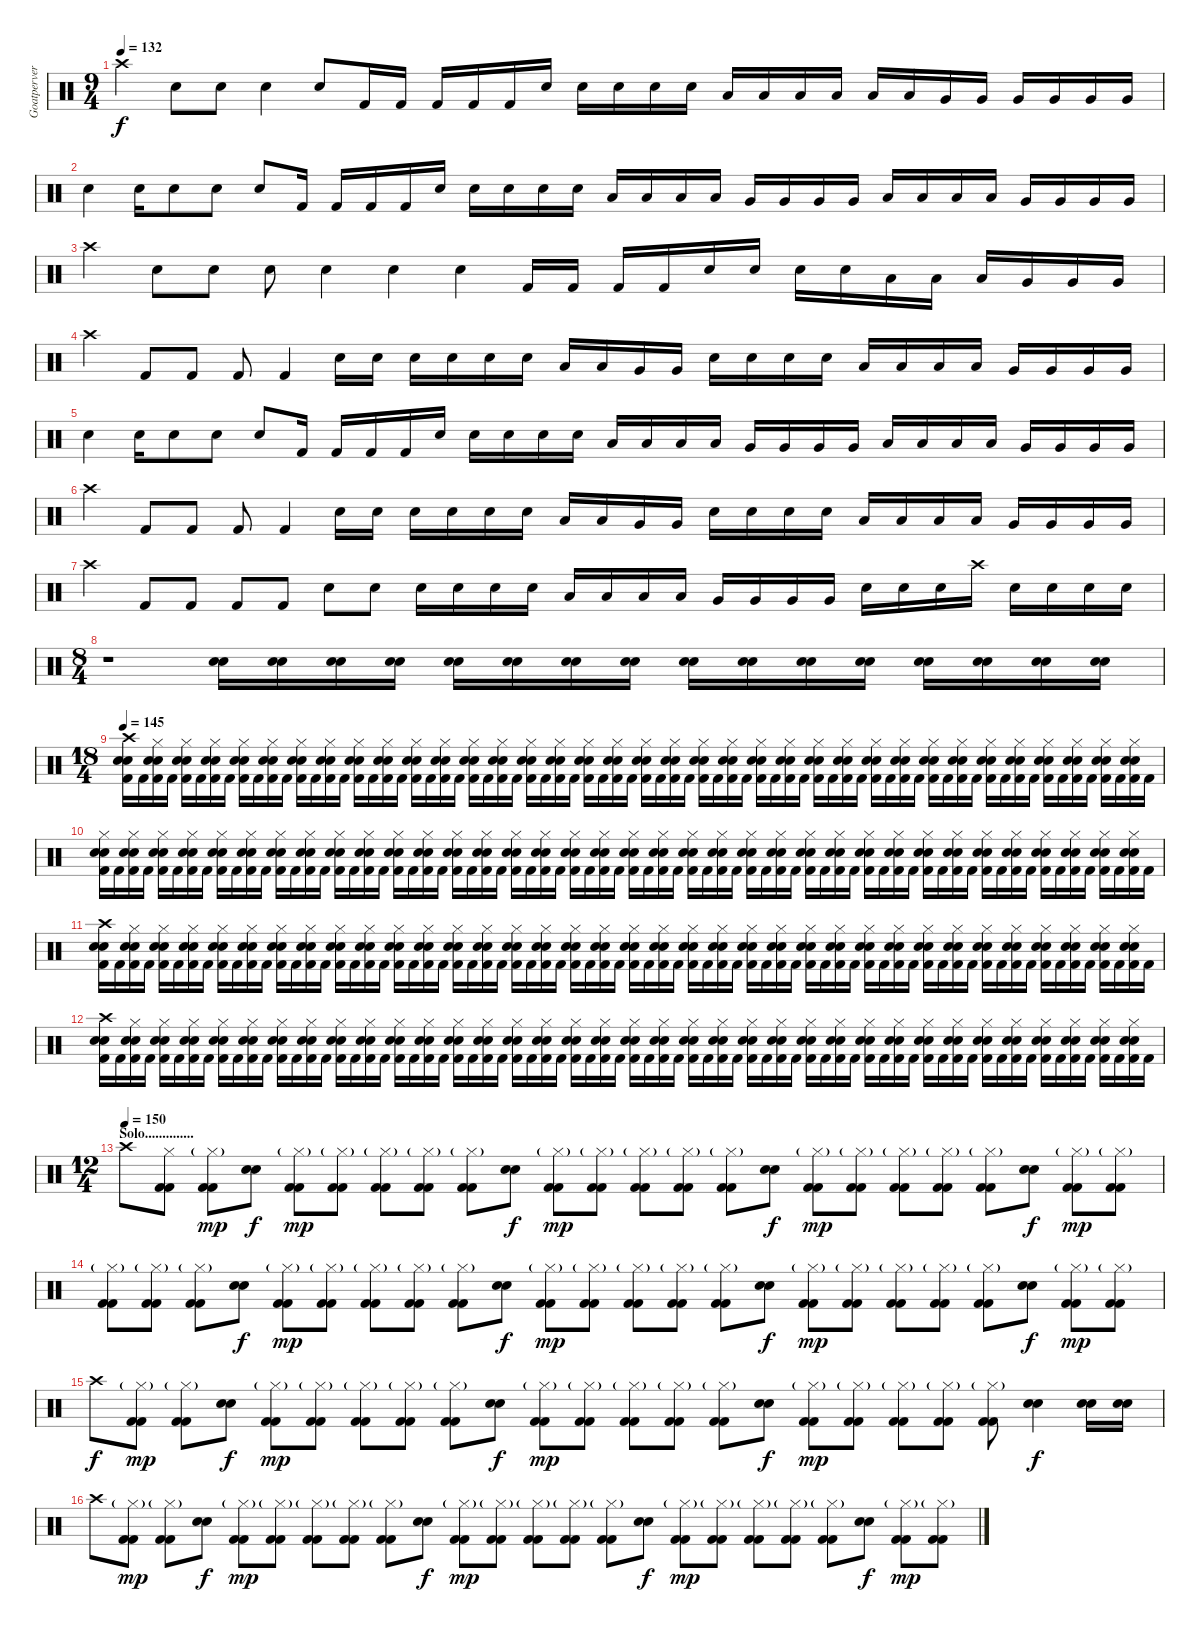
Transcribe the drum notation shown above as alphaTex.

\track ("Goatpervertor " "Goatperver") {instrument percussion}
\staff {score}
\articulation defaults
\ts (9 4)
\tempo 132
\clef neutral
\ks c "Crash high (hit)".4{dy f} "Snare (hit) 2".8 "Snare (hit) 2".8 "Snare (hit) 2".4 "Snare (hit) 2".8 "Kick (hit) 2".16 "Kick (hit) 2".16 "Kick (hit) 2".16 "Kick (hit) 2".16 "Kick (hit) 2".16 "Snare (hit) 2".16 "Snare (hit) 2".16 "Snare (hit) 2".16 "Snare (hit) 2".16 "Snare (hit) 2".16 "Low Floor Tom (hit)".16 "Low Floor Tom (hit)".16 "Low Floor Tom (hit)".16 "Low Floor Tom (hit)".16 "Low Floor Tom (hit)".16 "Low Floor Tom (hit)".16 "Very Low Tom (hit)".16 "Very Low Tom (hit)".16 "Very Low Tom (hit)".16 "Very Low Tom (hit)".16 "Very Low Tom (hit)".16 "Very Low Tom (hit)".16
|
"Snare (hit) 2".4 "Snare (hit) 2".16 "Snare (hit) 2".8 "Snare (hit) 2".8 "Snare (hit) 2".8 "Kick (hit) 2".16 "Kick (hit) 2".16 "Kick (hit) 2".16 "Kick (hit) 2".16 "Snare (hit) 2".16 "Snare (hit) 2".16 "Snare (hit) 2".16 "Snare (hit) 2".16 "Snare (hit) 2".16 "Low Floor Tom (hit)".16 "Low Floor Tom (hit)".16 "Low Floor Tom (hit)".16 "Low Floor Tom (hit)".16 "Very Low Tom (hit)".16 "Very Low Tom (hit)".16 "Very Low Tom (hit)".16 "Very Low Tom (hit)".16 "Low Floor Tom (hit)".16 "Low Floor Tom (hit)".16 "Low Floor Tom (hit)".16 "Low Floor Tom (hit)".16 "Very Low Tom (hit)".16 "Very Low Tom (hit)".16 "Very Low Tom (hit)".16 "Very Low Tom (hit)".16 |
"Crash high (hit)".4 "Snare (hit) 2".8 "Snare (hit) 2".8 "Snare (hit) 2".8 "Snare (hit) 2".4 "Snare (hit) 2".4 "Snare (hit) 2".4 "Kick (hit) 2".16 "Kick (hit) 2".16 "Kick (hit) 2".16 "Kick (hit) 2".16 "Snare (hit) 2".16 "Snare (hit) 2".16 "Snare (hit) 2".16 "Snare (hit) 2".16 "Low Floor Tom (hit)".16 "Low Floor Tom (hit)".16 "Low Floor Tom (hit)".16 "Very Low Tom (hit)".16 "Very Low Tom (hit)".16 "Very Low Tom (hit)".16 |
"Crash high (hit)".4 "Kick (hit) 2".8 "Kick (hit) 2".8 "Kick (hit) 2".8 "Kick (hit) 2".4 "Snare (hit) 2".16 "Snare (hit) 2".16 "Snare (hit) 2".16 "Snare (hit) 2".16 "Snare (hit) 2".16 "Snare (hit) 2".16 "Low Floor Tom (hit)".16 "Low Floor Tom (hit)".16 "Very Low Tom (hit)".16 "Very Low Tom (hit)".16 "Snare (hit) 2".16 "Snare (hit) 2".16 "Snare (hit) 2".16 "Snare (hit) 2".16 "Low Floor Tom (hit)".16 "Low Floor Tom (hit)".16 "Low Floor Tom (hit)".16 "Low Floor Tom (hit)".16 "Very Low Tom (hit)".16 "Very Low Tom (hit)".16 "Very Low Tom (hit)".16 "Very Low Tom (hit)".16 |
"Snare (hit) 2".4 "Snare (hit) 2".16 "Snare (hit) 2".8 "Snare (hit) 2".8 "Snare (hit) 2".8 "Kick (hit) 2".16 "Kick (hit) 2".16 "Kick (hit) 2".16 "Kick (hit) 2".16 "Snare (hit) 2".16 "Snare (hit) 2".16 "Snare (hit) 2".16 "Snare (hit) 2".16 "Snare (hit) 2".16 "Low Floor Tom (hit)".16 "Low Floor Tom (hit)".16 "Low Floor Tom (hit)".16 "Low Floor Tom (hit)".16 "Very Low Tom (hit)".16 "Very Low Tom (hit)".16 "Very Low Tom (hit)".16 "Very Low Tom (hit)".16 "Low Floor Tom (hit)".16 "Low Floor Tom (hit)".16 "Low Floor Tom (hit)".16 "Low Floor Tom (hit)".16 "Very Low Tom (hit)".16 "Very Low Tom (hit)".16 "Very Low Tom (hit)".16 "Very Low Tom (hit)".16 |
"Crash high (hit)".4 "Kick (hit) 2".8 "Kick (hit) 2".8 "Kick (hit) 2".8 "Kick (hit) 2".4 "Snare (hit) 2".16 "Snare (hit) 2".16 "Snare (hit) 2".16 "Snare (hit) 2".16 "Snare (hit) 2".16 "Snare (hit) 2".16 "Low Floor Tom (hit)".16 "Low Floor Tom (hit)".16 "Very Low Tom (hit)".16 "Very Low Tom (hit)".16 "Snare (hit) 2".16 "Snare (hit) 2".16 "Snare (hit) 2".16 "Snare (hit) 2".16 "Low Floor Tom (hit)".16 "Low Floor Tom (hit)".16 "Low Floor Tom (hit)".16 "Low Floor Tom (hit)".16 "Very Low Tom (hit)".16 "Very Low Tom (hit)".16 "Very Low Tom (hit)".16 "Very Low Tom (hit)".16 |
"Crash high (hit)".4 "Kick (hit) 2".8 "Kick (hit) 2".8 "Kick (hit) 2".8 "Kick (hit) 2".8 "Snare (hit) 2".8 "Snare (hit) 2".8 "Snare (hit) 2".16 "Snare (hit) 2".16 "Snare (hit) 2".16 "Snare (hit) 2".16 "Low Floor Tom (hit)".16 "Low Floor Tom (hit)".16 "Low Floor Tom (hit)".16 "Low Floor Tom (hit)".16 "Very Low Tom (hit)".16 "Very Low Tom (hit)".16 "Very Low Tom (hit)".16 "Very Low Tom (hit)".16 "Snare (hit) 2".16 "Snare (hit) 2".16 "Snare (hit) 2".16 "Crash high (hit)".16 "Snare (hit) 2".16 "Snare (hit) 2".16 "Snare (hit) 2".16 "Snare (hit) 2".16 |
\ts (8 4)
r.1 ("Snare (hit) 2" "Snare (hit) 2").16 ("Snare (hit) 2" "Snare (hit) 2").16 ("Snare (hit) 2" "Snare (hit) 2").16 ("Snare (hit) 2" "Snare (hit) 2").16 ("Snare (hit) 2" "Snare (hit) 2").16 ("Snare (hit) 2" "Snare (hit) 2").16 ("Snare (hit) 2" "Snare (hit) 2").16 ("Snare (hit) 2" "Snare (hit) 2").16 ("Snare (hit) 2" "Snare (hit) 2").16 ("Snare (hit) 2" "Snare (hit) 2").16 ("Snare (hit) 2" "Snare (hit) 2").16 ("Snare (hit) 2" "Snare (hit) 2").16 ("Snare (hit) 2" "Snare (hit) 2").16 ("Snare (hit) 2" "Snare (hit) 2").16 ("Snare (hit) 2" "Snare (hit) 2").16 ("Snare (hit) 2" "Snare (hit) 2").16 |
\ts (18 4)
\tempo 145
("Crash high (hit)" "Snare (hit) 2" "Snare (hit) 2" "Kick (hit) 2").16 "Kick (hit) 2".16 ("Hi-Hat (closed)" "Snare (hit) 2" "Snare (hit) 2" "Kick (hit) 2").16 "Kick (hit) 2".16 ("Hi-Hat (closed)" "Snare (hit) 2" "Snare (hit) 2" "Kick (hit) 2").16 "Kick (hit) 2".16 ("Hi-Hat (closed)" "Snare (hit) 2" "Snare (hit) 2" "Kick (hit) 2").16 "Kick (hit) 2".16 ("Hi-Hat (closed)" "Snare (hit) 2" "Snare (hit) 2" "Kick (hit) 2").16 "Kick (hit) 2".16 ("Hi-Hat (closed)" "Snare (hit) 2" "Snare (hit) 2" "Kick (hit) 2").16 "Kick (hit) 2".16 ("Hi-Hat (closed)" "Snare (hit) 2" "Snare (hit) 2" "Kick (hit) 2").16 "Kick (hit) 2".16 ("Hi-Hat (closed)" "Snare (hit) 2" "Snare (hit) 2" "Kick (hit) 2").16 "Kick (hit) 2".16 ("Hi-Hat (closed)" "Snare (hit) 2" "Snare (hit) 2" "Kick (hit) 2").16 "Kick (hit) 2".16 ("Hi-Hat (closed)" "Snare (hit) 2" "Snare (hit) 2" "Kick (hit) 2").16 "Kick (hit) 2".16 ("Hi-Hat (closed)" "Snare (hit) 2" "Snare (hit) 2" "Kick (hit) 2").16 "Kick (hit) 2".16 ("Hi-Hat (closed)" "Snare (hit) 2" "Snare (hit) 2" "Kick (hit) 2").16 "Kick (hit) 2".16 ("Hi-Hat (closed)" "Snare (hit) 2" "Snare (hit) 2" "Kick (hit) 2").16 "Kick (hit) 2".16 ("Hi-Hat (closed)" "Snare (hit) 2" "Snare (hit) 2" "Kick (hit) 2").16 "Kick (hit) 2".16 ("Hi-Hat (closed)" "Snare (hit) 2" "Snare (hit) 2" "Kick (hit) 2").16 "Kick (hit) 2".16 ("Hi-Hat (closed)" "Snare (hit) 2" "Snare (hit) 2" "Kick (hit) 2").16 "Kick (hit) 2".16 ("Hi-Hat (closed)" "Snare (hit) 2" "Snare (hit) 2" "Kick (hit) 2").16 "Kick (hit) 2".16 ("Hi-Hat (closed)" "Snare (hit) 2" "Snare (hit) 2" "Kick (hit) 2").16 "Kick (hit) 2".16 ("Hi-Hat (closed)" "Snare (hit) 2" "Snare (hit) 2" "Kick (hit) 2").16 "Kick (hit) 2".16 ("Hi-Hat (closed)" "Snare (hit) 2" "Snare (hit) 2" "Kick (hit) 2").16 "Kick (hit) 2".16 ("Hi-Hat (closed)" "Snare (hit) 2" "Snare (hit) 2" "Kick (hit) 2").16 "Kick (hit) 2".16 ("Hi-Hat (closed)" "Snare (hit) 2" "Snare (hit) 2" "Kick (hit) 2").16 "Kick (hit) 2".16 ("Hi-Hat (closed)" "Snare (hit) 2" "Snare (hit) 2" "Kick (hit) 2").16 "Kick (hit) 2".16 ("Hi-Hat (closed)" "Snare (hit) 2" "Snare (hit) 2" "Kick (hit) 2").16 "Kick (hit) 2".16 ("Hi-Hat (closed)" "Snare (hit) 2" "Snare (hit) 2" "Kick (hit) 2").16 "Kick (hit) 2".16 ("Hi-Hat (closed)" "Snare (hit) 2" "Snare (hit) 2" "Kick (hit) 2").16 "Kick (hit) 2".16 ("Hi-Hat (closed)" "Snare (hit) 2" "Snare (hit) 2" "Kick (hit) 2").16 "Kick (hit) 2".16 ("Hi-Hat (closed)" "Snare (hit) 2" "Snare (hit) 2" "Kick (hit) 2").16 "Kick (hit) 2".16 ("Hi-Hat (closed)" "Snare (hit) 2" "Snare (hit) 2" "Kick (hit) 2").16 "Kick (hit) 2".16 ("Hi-Hat (closed)" "Snare (hit) 2" "Snare (hit) 2" "Kick (hit) 2").16 "Kick (hit) 2".16 ("Hi-Hat (closed)" "Snare (hit) 2" "Snare (hit) 2" "Kick (hit) 2").16 "Kick (hit) 2".16 ("Hi-Hat (closed)" "Snare (hit) 2" "Snare (hit) 2" "Kick (hit) 2").16 "Kick (hit) 2".16 ("Hi-Hat (closed)" "Snare (hit) 2" "Snare (hit) 2" "Kick (hit) 2").16 "Kick (hit) 2".16 ("Hi-Hat (closed)" "Snare (hit) 2" "Snare (hit) 2" "Kick (hit) 2").16 "Kick (hit) 2".16 ("Hi-Hat (closed)" "Snare (hit) 2" "Snare (hit) 2" "Kick (hit) 2").16 "Kick (hit) 2".16 ("Hi-Hat (closed)" "Snare (hit) 2" "Snare (hit) 2" "Kick (hit) 2").16 "Kick (hit) 2".16 |
("Hi-Hat (closed)" "Snare (hit) 2" "Snare (hit) 2" "Kick (hit) 2").16 "Kick (hit) 2".16 ("Hi-Hat (closed)" "Snare (hit) 2" "Snare (hit) 2" "Kick (hit) 2").16 "Kick (hit) 2".16 ("Hi-Hat (closed)" "Snare (hit) 2" "Snare (hit) 2" "Kick (hit) 2").16 "Kick (hit) 2".16 ("Hi-Hat (closed)" "Snare (hit) 2" "Snare (hit) 2" "Kick (hit) 2").16 "Kick (hit) 2".16 ("Hi-Hat (closed)" "Snare (hit) 2" "Snare (hit) 2" "Kick (hit) 2").16 "Kick (hit) 2".16 ("Hi-Hat (closed)" "Snare (hit) 2" "Snare (hit) 2" "Kick (hit) 2").16 "Kick (hit) 2".16 ("Hi-Hat (closed)" "Snare (hit) 2" "Snare (hit) 2" "Kick (hit) 2").16 "Kick (hit) 2".16 ("Hi-Hat (closed)" "Snare (hit) 2" "Snare (hit) 2" "Kick (hit) 2").16 "Kick (hit) 2".16 ("Hi-Hat (closed)" "Snare (hit) 2" "Snare (hit) 2" "Kick (hit) 2").16 "Kick (hit) 2".16 ("Hi-Hat (closed)" "Snare (hit) 2" "Snare (hit) 2" "Kick (hit) 2").16 "Kick (hit) 2".16 ("Hi-Hat (closed)" "Snare (hit) 2" "Snare (hit) 2" "Kick (hit) 2").16 "Kick (hit) 2".16 ("Hi-Hat (closed)" "Snare (hit) 2" "Snare (hit) 2" "Kick (hit) 2").16 "Kick (hit) 2".16 ("Hi-Hat (closed)" "Snare (hit) 2" "Snare (hit) 2" "Kick (hit) 2").16 "Kick (hit) 2".16 ("Hi-Hat (closed)" "Snare (hit) 2" "Snare (hit) 2" "Kick (hit) 2").16 "Kick (hit) 2".16 ("Hi-Hat (closed)" "Snare (hit) 2" "Snare (hit) 2" "Kick (hit) 2").16 "Kick (hit) 2".16 ("Hi-Hat (closed)" "Snare (hit) 2" "Snare (hit) 2" "Kick (hit) 2").16 "Kick (hit) 2".16 ("Hi-Hat (closed)" "Snare (hit) 2" "Snare (hit) 2" "Kick (hit) 2").16 "Kick (hit) 2".16 ("Hi-Hat (closed)" "Snare (hit) 2" "Snare (hit) 2" "Kick (hit) 2").16 "Kick (hit) 2".16 ("Hi-Hat (closed)" "Snare (hit) 2" "Snare (hit) 2" "Kick (hit) 2").16 "Kick (hit) 2".16 ("Hi-Hat (closed)" "Snare (hit) 2" "Snare (hit) 2" "Kick (hit) 2").16 "Kick (hit) 2".16 ("Hi-Hat (closed)" "Snare (hit) 2" "Snare (hit) 2" "Kick (hit) 2").16 "Kick (hit) 2".16 ("Hi-Hat (closed)" "Snare (hit) 2" "Snare (hit) 2" "Kick (hit) 2").16 "Kick (hit) 2".16 ("Hi-Hat (closed)" "Snare (hit) 2" "Snare (hit) 2" "Kick (hit) 2").16 "Kick (hit) 2".16 ("Hi-Hat (closed)" "Snare (hit) 2" "Snare (hit) 2" "Kick (hit) 2").16 "Kick (hit) 2".16 ("Hi-Hat (closed)" "Snare (hit) 2" "Snare (hit) 2" "Kick (hit) 2").16 "Kick (hit) 2".16 ("Hi-Hat (closed)" "Snare (hit) 2" "Snare (hit) 2" "Kick (hit) 2").16 "Kick (hit) 2".16 ("Hi-Hat (closed)" "Snare (hit) 2" "Snare (hit) 2" "Kick (hit) 2").16 "Kick (hit) 2".16 ("Hi-Hat (closed)" "Snare (hit) 2" "Snare (hit) 2" "Kick (hit) 2").16 "Kick (hit) 2".16 ("Hi-Hat (closed)" "Snare (hit) 2" "Snare (hit) 2" "Kick (hit) 2").16 "Kick (hit) 2".16 ("Hi-Hat (closed)" "Snare (hit) 2" "Snare (hit) 2" "Kick (hit) 2").16 "Kick (hit) 2".16 ("Hi-Hat (closed)" "Snare (hit) 2" "Snare (hit) 2" "Kick (hit) 2").16 "Kick (hit) 2".16 ("Hi-Hat (closed)" "Snare (hit) 2" "Snare (hit) 2" "Kick (hit) 2").16 "Kick (hit) 2".16 ("Hi-Hat (closed)" "Snare (hit) 2" "Snare (hit) 2" "Kick (hit) 2").16 "Kick (hit) 2".16 ("Hi-Hat (closed)" "Snare (hit) 2" "Snare (hit) 2" "Kick (hit) 2").16 "Kick (hit) 2".16 ("Hi-Hat (closed)" "Snare (hit) 2" "Snare (hit) 2" "Kick (hit) 2").16 "Kick (hit) 2".16 ("Hi-Hat (closed)" "Snare (hit) 2" "Snare (hit) 2" "Kick (hit) 2").16 "Kick (hit) 2".16 |
("Crash high (hit)" "Snare (hit) 2" "Snare (hit) 2" "Kick (hit) 2").16 "Kick (hit) 2".16 ("Hi-Hat (closed)" "Snare (hit) 2" "Snare (hit) 2" "Kick (hit) 2").16 "Kick (hit) 2".16 ("Hi-Hat (closed)" "Snare (hit) 2" "Snare (hit) 2" "Kick (hit) 2").16 "Kick (hit) 2".16 ("Hi-Hat (closed)" "Snare (hit) 2" "Snare (hit) 2" "Kick (hit) 2").16 "Kick (hit) 2".16 ("Hi-Hat (closed)" "Snare (hit) 2" "Snare (hit) 2" "Kick (hit) 2").16 "Kick (hit) 2".16 ("Hi-Hat (closed)" "Snare (hit) 2" "Snare (hit) 2" "Kick (hit) 2").16 "Kick (hit) 2".16 ("Hi-Hat (closed)" "Snare (hit) 2" "Snare (hit) 2" "Kick (hit) 2").16 "Kick (hit) 2".16 ("Hi-Hat (closed)" "Snare (hit) 2" "Snare (hit) 2" "Kick (hit) 2").16 "Kick (hit) 2".16 ("Hi-Hat (closed)" "Snare (hit) 2" "Snare (hit) 2" "Kick (hit) 2").16 "Kick (hit) 2".16 ("Hi-Hat (closed)" "Snare (hit) 2" "Snare (hit) 2" "Kick (hit) 2").16 "Kick (hit) 2".16 ("Hi-Hat (closed)" "Snare (hit) 2" "Snare (hit) 2" "Kick (hit) 2").16 "Kick (hit) 2".16 ("Hi-Hat (closed)" "Snare (hit) 2" "Snare (hit) 2" "Kick (hit) 2").16 "Kick (hit) 2".16 ("Hi-Hat (closed)" "Snare (hit) 2" "Snare (hit) 2" "Kick (hit) 2").16 "Kick (hit) 2".16 ("Hi-Hat (closed)" "Snare (hit) 2" "Snare (hit) 2" "Kick (hit) 2").16 "Kick (hit) 2".16 ("Hi-Hat (closed)" "Snare (hit) 2" "Snare (hit) 2" "Kick (hit) 2").16 "Kick (hit) 2".16 ("Hi-Hat (closed)" "Snare (hit) 2" "Snare (hit) 2" "Kick (hit) 2").16 "Kick (hit) 2".16 ("Hi-Hat (closed)" "Snare (hit) 2" "Snare (hit) 2" "Kick (hit) 2").16 "Kick (hit) 2".16 ("Hi-Hat (closed)" "Snare (hit) 2" "Snare (hit) 2" "Kick (hit) 2").16 "Kick (hit) 2".16 ("Hi-Hat (closed)" "Snare (hit) 2" "Snare (hit) 2" "Kick (hit) 2").16 "Kick (hit) 2".16 ("Hi-Hat (closed)" "Snare (hit) 2" "Snare (hit) 2" "Kick (hit) 2").16 "Kick (hit) 2".16 ("Hi-Hat (closed)" "Snare (hit) 2" "Snare (hit) 2" "Kick (hit) 2").16 "Kick (hit) 2".16 ("Hi-Hat (closed)" "Snare (hit) 2" "Snare (hit) 2" "Kick (hit) 2").16 "Kick (hit) 2".16 ("Hi-Hat (closed)" "Snare (hit) 2" "Snare (hit) 2" "Kick (hit) 2").16 "Kick (hit) 2".16 ("Hi-Hat (closed)" "Snare (hit) 2" "Snare (hit) 2" "Kick (hit) 2").16 "Kick (hit) 2".16 ("Hi-Hat (closed)" "Snare (hit) 2" "Snare (hit) 2" "Kick (hit) 2").16 "Kick (hit) 2".16 ("Hi-Hat (closed)" "Snare (hit) 2" "Snare (hit) 2" "Kick (hit) 2").16 "Kick (hit) 2".16 ("Hi-Hat (closed)" "Snare (hit) 2" "Snare (hit) 2" "Kick (hit) 2").16 "Kick (hit) 2".16 ("Hi-Hat (closed)" "Snare (hit) 2" "Snare (hit) 2" "Kick (hit) 2").16 "Kick (hit) 2".16 ("Hi-Hat (closed)" "Snare (hit) 2" "Snare (hit) 2" "Kick (hit) 2").16 "Kick (hit) 2".16 ("Hi-Hat (closed)" "Snare (hit) 2" "Snare (hit) 2" "Kick (hit) 2").16 "Kick (hit) 2".16 ("Hi-Hat (closed)" "Snare (hit) 2" "Snare (hit) 2" "Kick (hit) 2").16 "Kick (hit) 2".16 ("Hi-Hat (closed)" "Snare (hit) 2" "Snare (hit) 2" "Kick (hit) 2").16 "Kick (hit) 2".16 ("Hi-Hat (closed)" "Snare (hit) 2" "Snare (hit) 2" "Kick (hit) 2").16 "Kick (hit) 2".16 ("Hi-Hat (closed)" "Snare (hit) 2" "Snare (hit) 2" "Kick (hit) 2").16 "Kick (hit) 2".16 ("Hi-Hat (closed)" "Snare (hit) 2" "Snare (hit) 2" "Kick (hit) 2").16 "Kick (hit) 2".16 ("Hi-Hat (closed)" "Snare (hit) 2" "Snare (hit) 2" "Kick (hit) 2").16 "Kick (hit) 2".16 |
("Crash high (hit)" "Snare (hit) 2" "Snare (hit) 2" "Kick (hit) 2").16 "Kick (hit) 2".16 ("Hi-Hat (closed)" "Snare (hit) 2" "Snare (hit) 2" "Kick (hit) 2").16 "Kick (hit) 2".16 ("Hi-Hat (closed)" "Snare (hit) 2" "Snare (hit) 2" "Kick (hit) 2").16 "Kick (hit) 2".16 ("Hi-Hat (closed)" "Snare (hit) 2" "Snare (hit) 2" "Kick (hit) 2").16 "Kick (hit) 2".16 ("Hi-Hat (closed)" "Snare (hit) 2" "Snare (hit) 2" "Kick (hit) 2").16 "Kick (hit) 2".16 ("Hi-Hat (closed)" "Snare (hit) 2" "Snare (hit) 2" "Kick (hit) 2").16 "Kick (hit) 2".16 ("Hi-Hat (closed)" "Snare (hit) 2" "Snare (hit) 2" "Kick (hit) 2").16 "Kick (hit) 2".16 ("Hi-Hat (closed)" "Snare (hit) 2" "Snare (hit) 2" "Kick (hit) 2").16 "Kick (hit) 2".16 ("Hi-Hat (closed)" "Snare (hit) 2" "Snare (hit) 2" "Kick (hit) 2").16 "Kick (hit) 2".16 ("Hi-Hat (closed)" "Snare (hit) 2" "Snare (hit) 2" "Kick (hit) 2").16 "Kick (hit) 2".16 ("Hi-Hat (closed)" "Snare (hit) 2" "Snare (hit) 2" "Kick (hit) 2").16 "Kick (hit) 2".16 ("Hi-Hat (closed)" "Snare (hit) 2" "Snare (hit) 2" "Kick (hit) 2").16 "Kick (hit) 2".16 ("Hi-Hat (closed)" "Snare (hit) 2" "Snare (hit) 2" "Kick (hit) 2").16 "Kick (hit) 2".16 ("Hi-Hat (closed)" "Snare (hit) 2" "Snare (hit) 2" "Kick (hit) 2").16 "Kick (hit) 2".16 ("Hi-Hat (closed)" "Snare (hit) 2" "Snare (hit) 2" "Kick (hit) 2").16 "Kick (hit) 2".16 ("Hi-Hat (closed)" "Snare (hit) 2" "Snare (hit) 2" "Kick (hit) 2").16 "Kick (hit) 2".16 ("Hi-Hat (closed)" "Snare (hit) 2" "Snare (hit) 2" "Kick (hit) 2").16 "Kick (hit) 2".16 ("Hi-Hat (closed)" "Snare (hit) 2" "Snare (hit) 2" "Kick (hit) 2").16 "Kick (hit) 2".16 ("Hi-Hat (closed)" "Snare (hit) 2" "Snare (hit) 2" "Kick (hit) 2").16 "Kick (hit) 2".16 ("Hi-Hat (closed)" "Snare (hit) 2" "Snare (hit) 2" "Kick (hit) 2").16 "Kick (hit) 2".16 ("Hi-Hat (closed)" "Snare (hit) 2" "Snare (hit) 2" "Kick (hit) 2").16 "Kick (hit) 2".16 ("Hi-Hat (closed)" "Snare (hit) 2" "Snare (hit) 2" "Kick (hit) 2").16 "Kick (hit) 2".16 ("Hi-Hat (closed)" "Snare (hit) 2" "Snare (hit) 2" "Kick (hit) 2").16 "Kick (hit) 2".16 ("Hi-Hat (closed)" "Snare (hit) 2" "Snare (hit) 2" "Kick (hit) 2").16 "Kick (hit) 2".16 ("Hi-Hat (closed)" "Snare (hit) 2" "Snare (hit) 2" "Kick (hit) 2").16 "Kick (hit) 2".16 ("Hi-Hat (closed)" "Snare (hit) 2" "Snare (hit) 2" "Kick (hit) 2").16 "Kick (hit) 2".16 ("Hi-Hat (closed)" "Snare (hit) 2" "Snare (hit) 2" "Kick (hit) 2").16 "Kick (hit) 2".16 ("Hi-Hat (closed)" "Snare (hit) 2" "Snare (hit) 2" "Kick (hit) 2").16 "Kick (hit) 2".16 ("Hi-Hat (closed)" "Snare (hit) 2" "Snare (hit) 2" "Kick (hit) 2").16 "Kick (hit) 2".16 ("Hi-Hat (closed)" "Snare (hit) 2" "Snare (hit) 2" "Kick (hit) 2").16 "Kick (hit) 2".16 ("Hi-Hat (closed)" "Snare (hit) 2" "Snare (hit) 2" "Kick (hit) 2").16 "Kick (hit) 2".16 ("Hi-Hat (closed)" "Snare (hit) 2" "Snare (hit) 2" "Kick (hit) 2").16 "Kick (hit) 2".16 ("Hi-Hat (closed)" "Snare (hit) 2" "Snare (hit) 2" "Kick (hit) 2").16 "Kick (hit) 2".16 ("Hi-Hat (closed)" "Snare (hit) 2" "Snare (hit) 2" "Kick (hit) 2").16 "Kick (hit) 2".16 ("Hi-Hat (closed)" "Snare (hit) 2" "Snare (hit) 2" "Kick (hit) 2").16 "Kick (hit) 2".16 ("Hi-Hat (closed)" "Snare (hit) 2" "Snare (hit) 2" "Kick (hit) 2").16 "Kick (hit) 2".16 |
\ts (12 4)
\section ("" "Solo..............")
\tempo (150)
"Crash high (hit)".8 ("Hi-Hat (closed)" "Kick (hit) 2" "Kick (hit) 2").8 ("Hi-Hat (closed)"{g} "Kick (hit) 2" "Kick (hit) 2").8{dy mp} ("Snare (hit) 2" "Snare (hit) 2").8{dy f} ("Hi-Hat (closed)"{g} "Kick (hit) 2" "Kick (hit) 2").8{dy mp} ("Hi-Hat (closed)"{g} "Kick (hit) 2" "Kick (hit) 2").8 ("Hi-Hat (closed)"{g} "Kick (hit) 2" "Kick (hit) 2").8 ("Hi-Hat (closed)"{g} "Kick (hit) 2" "Kick (hit) 2").8 ("Hi-Hat (closed)"{g} "Kick (hit) 2" "Kick (hit) 2").8 ("Snare (hit) 2" "Snare (hit) 2").8{dy f} ("Hi-Hat (closed)"{g} "Kick (hit) 2" "Kick (hit) 2").8{dy mp} ("Hi-Hat (closed)"{g} "Kick (hit) 2" "Kick (hit) 2").8 ("Hi-Hat (closed)"{g} "Kick (hit) 2" "Kick (hit) 2").8 ("Hi-Hat (closed)"{g} "Kick (hit) 2" "Kick (hit) 2").8 ("Hi-Hat (closed)"{g} "Kick (hit) 2" "Kick (hit) 2").8 ("Snare (hit) 2" "Snare (hit) 2").8{dy f} ("Hi-Hat (closed)"{g} "Kick (hit) 2" "Kick (hit) 2").8{dy mp} ("Hi-Hat (closed)"{g} "Kick (hit) 2" "Kick (hit) 2").8 ("Hi-Hat (closed)"{g} "Kick (hit) 2" "Kick (hit) 2").8 ("Hi-Hat (closed)"{g} "Kick (hit) 2" "Kick (hit) 2").8 ("Hi-Hat (closed)"{g} "Kick (hit) 2" "Kick (hit) 2").8 ("Snare (hit) 2" "Snare (hit) 2").8{dy f} ("Hi-Hat (closed)"{g} "Kick (hit) 2" "Kick (hit) 2").8{dy mp} ("Hi-Hat (closed)"{g} "Kick (hit) 2" "Kick (hit) 2").8 |
("Hi-Hat (closed)"{g} "Kick (hit) 2" "Kick (hit) 2").8 ("Hi-Hat (closed)"{g} "Kick (hit) 2" "Kick (hit) 2").8 ("Hi-Hat (closed)"{g} "Kick (hit) 2" "Kick (hit) 2").8 ("Snare (hit) 2" "Snare (hit) 2").8{dy f} ("Hi-Hat (closed)"{g} "Kick (hit) 2" "Kick (hit) 2").8{dy mp} ("Hi-Hat (closed)"{g} "Kick (hit) 2" "Kick (hit) 2").8 ("Hi-Hat (closed)"{g} "Kick (hit) 2" "Kick (hit) 2").8 ("Hi-Hat (closed)"{g} "Kick (hit) 2" "Kick (hit) 2").8 ("Hi-Hat (closed)"{g} "Kick (hit) 2" "Kick (hit) 2").8 ("Snare (hit) 2" "Snare (hit) 2").8{dy f} ("Hi-Hat (closed)"{g} "Kick (hit) 2" "Kick (hit) 2").8{dy mp} ("Hi-Hat (closed)"{g} "Kick (hit) 2" "Kick (hit) 2").8 ("Hi-Hat (closed)"{g} "Kick (hit) 2" "Kick (hit) 2").8 ("Hi-Hat (closed)"{g} "Kick (hit) 2" "Kick (hit) 2").8 ("Hi-Hat (closed)"{g} "Kick (hit) 2" "Kick (hit) 2").8 ("Snare (hit) 2" "Snare (hit) 2").8{dy f} ("Hi-Hat (closed)"{g} "Kick (hit) 2" "Kick (hit) 2").8{dy mp} ("Hi-Hat (closed)"{g} "Kick (hit) 2" "Kick (hit) 2").8 ("Hi-Hat (closed)"{g} "Kick (hit) 2" "Kick (hit) 2").8 ("Hi-Hat (closed)"{g} "Kick (hit) 2" "Kick (hit) 2").8 ("Hi-Hat (closed)"{g} "Kick (hit) 2" "Kick (hit) 2").8 ("Snare (hit) 2" "Snare (hit) 2").8{dy f} ("Hi-Hat (closed)"{g} "Kick (hit) 2" "Kick (hit) 2").8{dy mp} ("Hi-Hat (closed)"{g} "Kick (hit) 2" "Kick (hit) 2").8 |
"Crash high (hit)".8{dy f} ("Hi-Hat (closed)"{g} "Kick (hit) 2" "Kick (hit) 2").8{dy mp} ("Hi-Hat (closed)"{g} "Kick (hit) 2" "Kick (hit) 2").8 ("Snare (hit) 2" "Snare (hit) 2").8{dy f} ("Hi-Hat (closed)"{g} "Kick (hit) 2" "Kick (hit) 2").8{dy mp} ("Hi-Hat (closed)"{g} "Kick (hit) 2" "Kick (hit) 2").8 ("Hi-Hat (closed)"{g} "Kick (hit) 2" "Kick (hit) 2").8 ("Hi-Hat (closed)"{g} "Kick (hit) 2" "Kick (hit) 2").8 ("Hi-Hat (closed)"{g} "Kick (hit) 2" "Kick (hit) 2").8 ("Snare (hit) 2" "Snare (hit) 2").8{dy f} ("Hi-Hat (closed)"{g} "Kick (hit) 2" "Kick (hit) 2").8{dy mp} ("Hi-Hat (closed)"{g} "Kick (hit) 2" "Kick (hit) 2").8 ("Hi-Hat (closed)"{g} "Kick (hit) 2" "Kick (hit) 2").8 ("Hi-Hat (closed)"{g} "Kick (hit) 2" "Kick (hit) 2").8 ("Hi-Hat (closed)"{g} "Kick (hit) 2" "Kick (hit) 2").8 ("Snare (hit) 2" "Snare (hit) 2").8{dy f} ("Hi-Hat (closed)"{g} "Kick (hit) 2" "Kick (hit) 2").8{dy mp} ("Hi-Hat (closed)"{g} "Kick (hit) 2" "Kick (hit) 2").8 ("Hi-Hat (closed)"{g} "Kick (hit) 2" "Kick (hit) 2").8 ("Hi-Hat (closed)"{g} "Kick (hit) 2" "Kick (hit) 2").8 ("Hi-Hat (closed)"{g} "Kick (hit) 2" "Kick (hit) 2").8 ("Snare (hit) 2" "Snare (hit) 2").4{dy f} ("Snare (hit) 2" "Snare (hit) 2").16 ("Snare (hit) 2" "Snare (hit) 2").16 |
"Crash high (hit)".8 ("Hi-Hat (closed)"{g} "Kick (hit) 2" "Kick (hit) 2").8{dy mp} ("Hi-Hat (closed)"{g} "Kick (hit) 2" "Kick (hit) 2").8 ("Snare (hit) 2" "Snare (hit) 2").8{dy f} ("Hi-Hat (closed)"{g} "Kick (hit) 2" "Kick (hit) 2").8{dy mp} ("Hi-Hat (closed)"{g} "Kick (hit) 2" "Kick (hit) 2").8 ("Hi-Hat (closed)"{g} "Kick (hit) 2" "Kick (hit) 2").8 ("Hi-Hat (closed)"{g} "Kick (hit) 2" "Kick (hit) 2").8 ("Hi-Hat (closed)"{g} "Kick (hit) 2" "Kick (hit) 2").8 ("Snare (hit) 2" "Snare (hit) 2").8{dy f} ("Hi-Hat (closed)"{g} "Kick (hit) 2" "Kick (hit) 2").8{dy mp} ("Hi-Hat (closed)"{g} "Kick (hit) 2" "Kick (hit) 2").8 ("Hi-Hat (closed)"{g} "Kick (hit) 2" "Kick (hit) 2").8 ("Hi-Hat (closed)"{g} "Kick (hit) 2" "Kick (hit) 2").8 ("Hi-Hat (closed)"{g} "Kick (hit) 2" "Kick (hit) 2").8 ("Snare (hit) 2" "Snare (hit) 2").8{dy f} ("Hi-Hat (closed)"{g} "Kick (hit) 2" "Kick (hit) 2").8{dy mp} ("Hi-Hat (closed)"{g} "Kick (hit) 2" "Kick (hit) 2").8 ("Hi-Hat (closed)"{g} "Kick (hit) 2" "Kick (hit) 2").8 ("Hi-Hat (closed)"{g} "Kick (hit) 2" "Kick (hit) 2").8 ("Hi-Hat (closed)"{g} "Kick (hit) 2" "Kick (hit) 2").8 ("Snare (hit) 2" "Snare (hit) 2").8{dy f} ("Hi-Hat (closed)"{g} "Kick (hit) 2" "Kick (hit) 2").8{dy mp} ("Hi-Hat (closed)"{g} "Kick (hit) 2" "Kick (hit) 2").8
